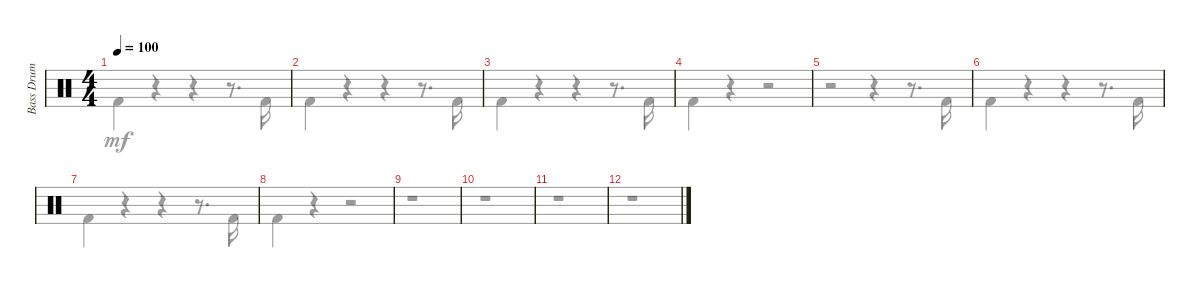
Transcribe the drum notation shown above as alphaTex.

\track ("Bass Drum" "Bass Drum") {instrument percussion}
\staff {score}
\articulation defaults
\voice
\ts (4 4)
\tempo 100
\clef neutral
\ks aminor
|
|
|
|
|
|
|
|
|
|
|
\voice
\clef neutral
\ks aminor "Kick (hit) 2".4{dy mf}
r.4 r.4 r.8{d} "Kick (hit) 2".16 |
"Kick (hit) 2".4 r.4 r.4 r.8{d} "Kick (hit) 2".16 |
"Kick (hit) 2".4 r.4 r.4 r.8{d} "Kick (hit) 2".16 |
"Kick (hit) 2".4 r.4 r.2 |
r.2 r.4 r.8{d} "Kick (hit) 2".16 |
"Kick (hit) 2".4 r.4 r.4 r.8{d} "Kick (hit) 2".16 |
"Kick (hit) 2".4 r.4 r.4 r.8{d} "Kick (hit) 2".16 |
"Kick (hit) 2".4 r.4 r.2 |
r.1 |
r.1 |
r.1 |
r.1
